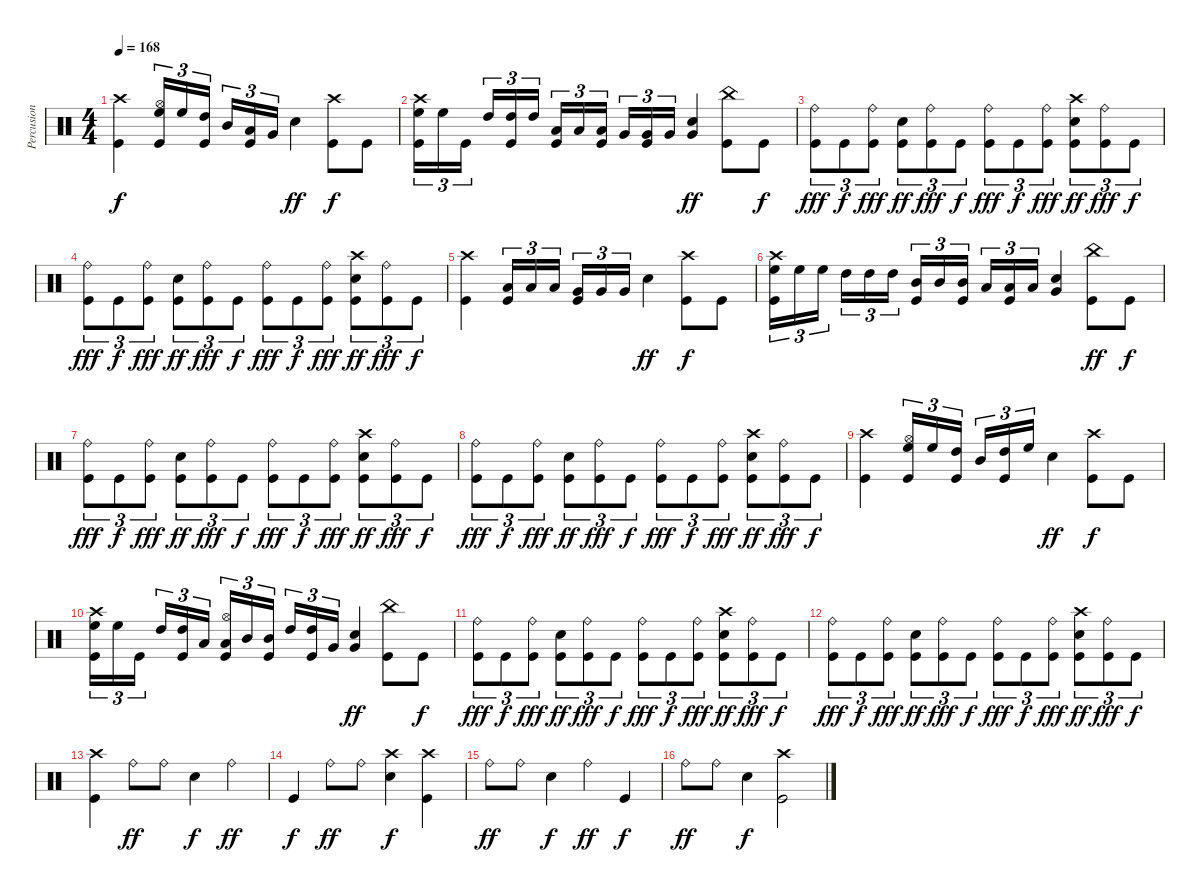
\track ("Percusion" "Percusion") {instrument percussion}
\staff {score}
\articulation defaults
\ts (4 4)
\tempo 168
\clef neutral
\ks c
("Crash high (hit)" "Kick (hit)").4{dy f} ("Hi-Hat (open)" "High Floor Tom (hit)" "Kick (hit)").16{tu (3 2)} "High Floor Tom (hit)".16{tu (3 2)} ("High Tom (hit)" "Kick (hit)").16{tu (3 2)} "Mid Tom (hit)".16{tu (3 2)} ("Low Tom (hit)" "Kick (hit)").16{tu (3 2)} "Very Low Tom (hit)".16{tu (3 2)} "Snare (hit) 2".4{dy ff} ("Crash high (hit)" "Kick (hit)").8{dy f} "Kick (hit)".8 |
("Crash high (hit)" "High Floor Tom (hit)" "Kick (hit)").16{tu (3 2)} "High Floor Tom (hit)".16{tu (3 2)} "Kick (hit)".16{tu (3 2)} "High Tom (hit)".16{tu (3 2)} ("High Tom (hit)" "Kick (hit)").16{tu (3 2)} "High Tom (hit)".16{tu (3 2)} ("Low Tom (hit)" "Kick (hit)").16{tu (3 2)} "Low Tom (hit)".16{tu (3 2)} ("Low Tom (hit)" "Kick (hit)").16{tu (3 2)} "Very Low Tom (hit)".16{tu (3 2)} ("Very Low Tom (hit)" "Kick (hit)").16{tu (3 2)} "Very Low Tom (hit)".16{tu (3 2)} ("Very Low Tom (hit)" "Snare (hit) 2").4{dy ff} ("China (hit)" "Kick (hit)").8 "Kick (hit)".8{dy f} |
("Ride (bell)" "Kick (hit)").8{tu (3 2) dy fff} "Kick (hit)".8{tu (3 2) dy f} ("Ride (bell)" "Kick (hit)").8{tu (3 2) dy fff} ("Snare (hit) 2" "Kick (hit)").8{tu (3 2) dy ff} ("Ride (bell)" "Kick (hit)").8{tu (3 2) dy fff} "Kick (hit)".8{tu (3 2) dy f} ("Ride (bell)" "Kick (hit)").8{tu (3 2) dy fff} "Kick (hit)".8{tu (3 2) dy f} ("Ride (bell)" "Kick (hit)").8{tu (3 2) dy fff} ("Crash high (hit)" "Snare (hit) 2" "Kick (hit)").8{tu (3 2) dy ff} ("Ride (bell)" "Kick (hit)").8{tu (3 2) dy fff} "Kick (hit)".8{tu (3 2) dy f} |
("Ride (bell)" "Kick (hit)").8{tu (3 2) dy fff} "Kick (hit)".8{tu (3 2) dy f} ("Ride (bell)" "Kick (hit)").8{tu (3 2) dy fff} ("Snare (hit) 2" "Kick (hit)").8{tu (3 2) dy ff} ("Ride (bell)" "Kick (hit)").8{tu (3 2) dy fff} "Kick (hit)".8{tu (3 2) dy f} ("Ride (bell)" "Kick (hit)").8{tu (3 2) dy fff} "Kick (hit)".8{tu (3 2) dy f} ("Ride (bell)" "Kick (hit)").8{tu (3 2) dy fff} ("Crash high (hit)" "Snare (hit) 2" "Kick (hit)").8{tu (3 2) dy ff} ("Ride (bell)" "Kick (hit)").8{tu (3 2) dy fff} "Kick (hit)".8{tu (3 2) dy f} |
("Crash high (hit)" "Kick (hit)").4 ("Low Tom (hit)" "Kick (hit)").16{tu (3 2)} "Low Tom (hit)".16{tu (3 2)} "Low Tom (hit)".16{tu (3 2)} ("Very Low Tom (hit)" "Kick (hit)").16{tu (3 2)} "Very Low Tom (hit)".16{tu (3 2)} "Very Low Tom (hit)".16{tu (3 2)} "Snare (hit) 2".4{dy ff} ("Crash high (hit)" "Kick (hit)").8{dy f} "Kick (hit)".8 |
("Crash high (hit)" "High Floor Tom (hit)" "Kick (hit)").16{tu (3 2)} "High Floor Tom (hit)".16{tu (3 2)} "High Floor Tom (hit)".16{tu (3 2)} "High Tom (hit)".16{tu (3 2)} "High Tom (hit)".16{tu (3 2)} "High Tom (hit)".16{tu (3 2)} ("Mid Tom (hit)" "Kick (hit)").16{tu (3 2)} "Mid Tom (hit)".16{tu (3 2)} ("Mid Tom (hit)" "Kick (hit)").16{tu (3 2)} "Low Tom (hit)".16{tu (3 2)} ("Low Tom (hit)" "Kick (hit)").16{tu (3 2)} "Low Tom (hit)".16{tu (3 2)} ("Very Low Tom (hit)" "Snare (hit) 2").4 ("China (hit)" "Kick (hit)").8{dy ff} "Kick (hit)".8{dy f} |
("Ride (bell)" "Kick (hit)").8{tu (3 2) dy fff} "Kick (hit)".8{tu (3 2) dy f} ("Ride (bell)" "Kick (hit)").8{tu (3 2) dy fff} ("Snare (hit) 2" "Kick (hit)").8{tu (3 2) dy ff} ("Ride (bell)" "Kick (hit)").8{tu (3 2) dy fff} "Kick (hit)".8{tu (3 2) dy f} ("Ride (bell)" "Kick (hit)").8{tu (3 2) dy fff} "Kick (hit)".8{tu (3 2) dy f} ("Ride (bell)" "Kick (hit)").8{tu (3 2) dy fff} ("Crash high (hit)" "Snare (hit) 2" "Kick (hit)").8{tu (3 2) dy ff} ("Ride (bell)" "Kick (hit)").8{tu (3 2) dy fff} "Kick (hit)".8{tu (3 2) dy f} |
("Ride (bell)" "Kick (hit)").8{tu (3 2) dy fff} "Kick (hit)".8{tu (3 2) dy f} ("Ride (bell)" "Kick (hit)").8{tu (3 2) dy fff} ("Snare (hit) 2" "Kick (hit)").8{tu (3 2) dy ff} ("Ride (bell)" "Kick (hit)").8{tu (3 2) dy fff} "Kick (hit)".8{tu (3 2) dy f} ("Ride (bell)" "Kick (hit)").8{tu (3 2) dy fff} "Kick (hit)".8{tu (3 2) dy f} ("Ride (bell)" "Kick (hit)").8{tu (3 2) dy fff} ("Crash high (hit)" "Snare (hit) 2" "Kick (hit)").8{tu (3 2) dy ff} ("Ride (bell)" "Kick (hit)").8{tu (3 2) dy fff} "Kick (hit)".8{tu (3 2) dy f} |
("Crash high (hit)" "Kick (hit)").4 ("Hi-Hat (open)" "High Floor Tom (hit)" "Kick (hit)").16{tu (3 2)} "High Floor Tom (hit)".16{tu (3 2)} ("High Tom (hit)" "Kick (hit)").16{tu (3 2)} "Mid Tom (hit)".16{tu (3 2)} ("High Tom (hit)" "Kick (hit)").16{tu (3 2)} "High Floor Tom (hit)".16{tu (3 2)} "Snare (hit) 2".4{dy ff} ("Crash high (hit)" "Kick (hit)").8{dy f} "Kick (hit)".8 |
("Crash high (hit)" "High Floor Tom (hit)" "Kick (hit)").16{tu (3 2)} "High Floor Tom (hit)".16{tu (3 2)} "Kick (hit)".16{tu (3 2)} "High Tom (hit)".16{tu (3 2)} ("High Tom (hit)" "Kick (hit)").16{tu (3 2)} "Low Tom (hit)".16{tu (3 2)} ("Hi-Hat (open)" "Low Tom (hit)" "Kick (hit)").16{tu (3 2)} "Mid Tom (hit)".16{tu (3 2)} ("Mid Tom (hit)" "Kick (hit)").16{tu (3 2)} "High Tom (hit)".16{tu (3 2)} ("High Tom (hit)" "Kick (hit)").16{tu (3 2)} "Very Low Tom (hit)".16{tu (3 2)} ("Very Low Tom (hit)" "Snare (hit) 2").4{dy ff} ("China (hit)" "Kick (hit)").8 "Kick (hit)".8{dy f} |
("Ride (bell)" "Kick (hit)").8{tu (3 2) dy fff} "Kick (hit)".8{tu (3 2) dy f} ("Ride (bell)" "Kick (hit)").8{tu (3 2) dy fff} ("Snare (hit) 2" "Kick (hit)").8{tu (3 2) dy ff} ("Ride (bell)" "Kick (hit)").8{tu (3 2) dy fff} "Kick (hit)".8{tu (3 2) dy f} ("Ride (bell)" "Kick (hit)").8{tu (3 2) dy fff} "Kick (hit)".8{tu (3 2) dy f} ("Ride (bell)" "Kick (hit)").8{tu (3 2) dy fff} ("Crash high (hit)" "Snare (hit) 2" "Kick (hit)").8{tu (3 2) dy ff} ("Ride (bell)" "Kick (hit)").8{tu (3 2) dy fff} "Kick (hit)".8{tu (3 2) dy f} |
("Ride (bell)" "Kick (hit)").8{tu (3 2) dy fff} "Kick (hit)".8{tu (3 2) dy f} ("Ride (bell)" "Kick (hit)").8{tu (3 2) dy fff} ("Snare (hit) 2" "Kick (hit)").8{tu (3 2) dy ff} ("Ride (bell)" "Kick (hit)").8{tu (3 2) dy fff} "Kick (hit)".8{tu (3 2) dy f} ("Ride (bell)" "Kick (hit)").8{tu (3 2) dy fff} "Kick (hit)".8{tu (3 2) dy f} ("Ride (bell)" "Kick (hit)").8{tu (3 2) dy fff} ("Crash high (hit)" "Snare (hit) 2" "Kick (hit)").8{tu (3 2) dy ff} ("Ride (bell)" "Kick (hit)").8{tu (3 2) dy fff} "Kick (hit)".8{tu (3 2) dy f} |
("Crash high (hit)" "Kick (hit)").4 "Ride (bell)".8{dy ff} "Ride (bell)".8 "Snare (hit) 2".4{dy f} "Ride (bell)".4{dy ff} |
"Kick (hit)".4{dy f} "Ride (bell)".8{dy ff} "Ride (bell)".8 ("Crash high (hit)" "Snare (hit) 2").4{dy f} ("Crash high (hit)" "Kick (hit)").4 |
"Ride (bell)".8{dy ff} "Ride (bell)".8 "Snare (hit) 2".4{dy f} "Ride (bell)".4{dy ff} "Kick (hit)".4{dy f} |
"Ride (bell)".8{dy ff} "Ride (bell)".8 "Snare (hit) 2".4{dy f} ("Crash high (hit)" "Kick (hit)").2
